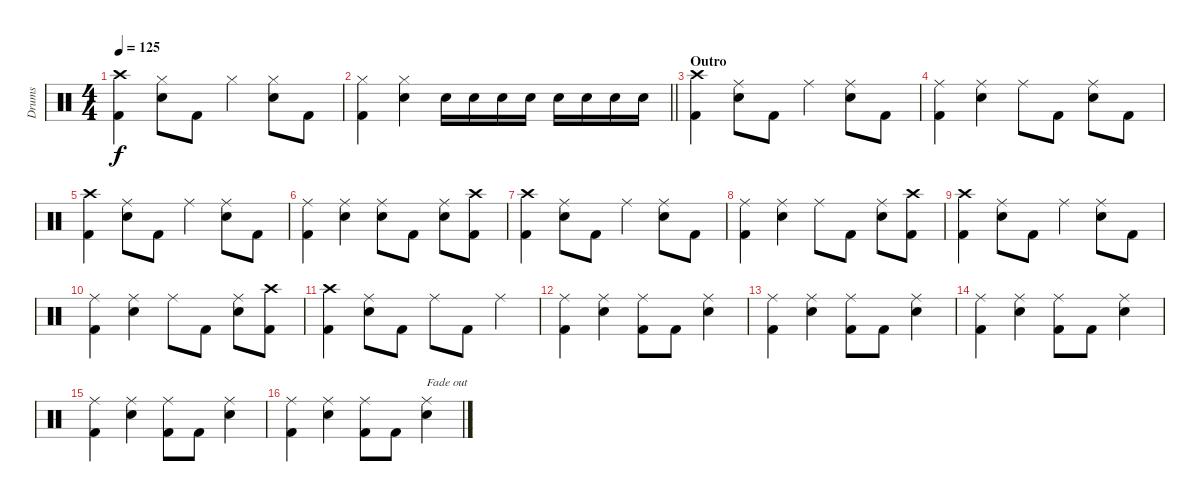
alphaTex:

\track ("Drums" "Drums") {instrument percussion}
\staff {score}
\articulation defaults
\ts (4 4)
\tempo 125
\clef neutral
\ks c
("Crash high (hit)" "Kick (hit) 2").4{dy f} ("Hi-Hat (closed)" "Electric Snare (hit)").8 "Kick (hit) 2".8 "Hi-Hat (closed)".4 ("Hi-Hat (closed)" "Electric Snare (hit)").8 "Kick (hit) 2".8 |
\barLineRight lightlight
("Hi-Hat (closed)" "Kick (hit) 2").4 ("Hi-Hat (closed)" "Electric Snare (hit)").4 "Electric Snare (hit)".16 "Electric Snare (hit)".16 "Electric Snare (hit)".16 "Electric Snare (hit)".16 "Electric Snare (hit)".16 "Electric Snare (hit)".16 "Electric Snare (hit)".16 "Electric Snare (hit)".16 |
\section ("" "Outro")
("Crash high (hit)" "Kick (hit) 2").4 ("Ride (middle)" "Electric Snare (hit)").8 "Kick (hit) 2".8 "Ride (middle)".4 ("Ride (middle)" "Electric Snare (hit)").8 "Kick (hit) 2".8 |
("Ride (middle)" "Kick (hit) 2").4 ("Ride (middle)" "Electric Snare (hit)").4 "Ride (middle)".8 "Kick (hit) 2".8 ("Ride (middle)" "Electric Snare (hit)").8 "Kick (hit) 2".8 |
("Crash high (hit)" "Kick (hit) 2").4 ("Ride (middle)" "Electric Snare (hit)").8 "Kick (hit) 2".8 "Ride (middle)".4 ("Ride (middle)" "Electric Snare (hit)").8 "Kick (hit) 2".8 |
("Ride (middle)" "Kick (hit) 2").4 ("Ride (middle)" "Electric Snare (hit)").4 ("Ride (middle)" "Electric Snare (hit)").8 "Kick (hit) 2".8 ("Ride (middle)" "Electric Snare (hit)").8 ("Crash high (hit)" "Kick (hit) 2").8 |
("Crash high (hit)" "Kick (hit) 2").4 ("Ride (middle)" "Electric Snare (hit)").8 "Kick (hit) 2".8 "Ride (middle)".4 ("Ride (middle)" "Electric Snare (hit)").8 "Kick (hit) 2".8 |
("Ride (middle)" "Kick (hit) 2").4 ("Ride (middle)" "Electric Snare (hit)").4 "Ride (middle)".8 "Kick (hit) 2".8 ("Ride (middle)" "Electric Snare (hit)").8 ("Crash high (hit)" "Kick (hit) 2").8 |
("Crash high (hit)" "Kick (hit) 2").4 ("Ride (middle)" "Electric Snare (hit)").8 "Kick (hit) 2".8 "Ride (middle)".4 ("Ride (middle)" "Electric Snare (hit)").8 "Kick (hit) 2".8 |
("Ride (middle)" "Kick (hit) 2").4 ("Ride (middle)" "Electric Snare (hit)").4 "Ride (middle)".8 "Kick (hit) 2".8 ("Ride (middle)" "Electric Snare (hit)").8 ("Crash high (hit)" "Kick (hit) 2").8 |
("Crash high (hit)" "Kick (hit) 2").4 ("Ride (middle)" "Electric Snare (hit)").8 "Kick (hit) 2".8 "Ride (middle)".8 "Kick (hit) 2".8 "Ride (middle)".4 |
("Ride (middle)" "Kick (hit) 2").4 ("Ride (middle)" "Electric Snare (hit)").4 ("Ride (middle)" "Kick (hit) 2").8 "Kick (hit) 2".8 ("Ride (middle)" "Electric Snare (hit)").4 |
("Ride (middle)" "Kick (hit) 2").4 ("Ride (middle)" "Electric Snare (hit)").4 ("Ride (middle)" "Kick (hit) 2").8 "Kick (hit) 2".8 ("Ride (middle)" "Electric Snare (hit)").4 |
("Ride (middle)" "Kick (hit) 2").4 ("Ride (middle)" "Electric Snare (hit)").4 ("Ride (middle)" "Kick (hit) 2").8 "Kick (hit) 2".8 ("Ride (middle)" "Electric Snare (hit)").4 |
("Ride (middle)" "Kick (hit) 2").4 ("Ride (middle)" "Electric Snare (hit)").4 ("Ride (middle)" "Kick (hit) 2").8 "Kick (hit) 2".8 ("Ride (middle)" "Electric Snare (hit)").4 |
("Ride (middle)" "Kick (hit) 2").4 ("Ride (middle)" "Electric Snare (hit)").4 ("Ride (middle)" "Kick (hit) 2").8 "Kick (hit) 2".8 ("Ride (middle)" "Electric Snare (hit)").4{txt "Fade out"}
